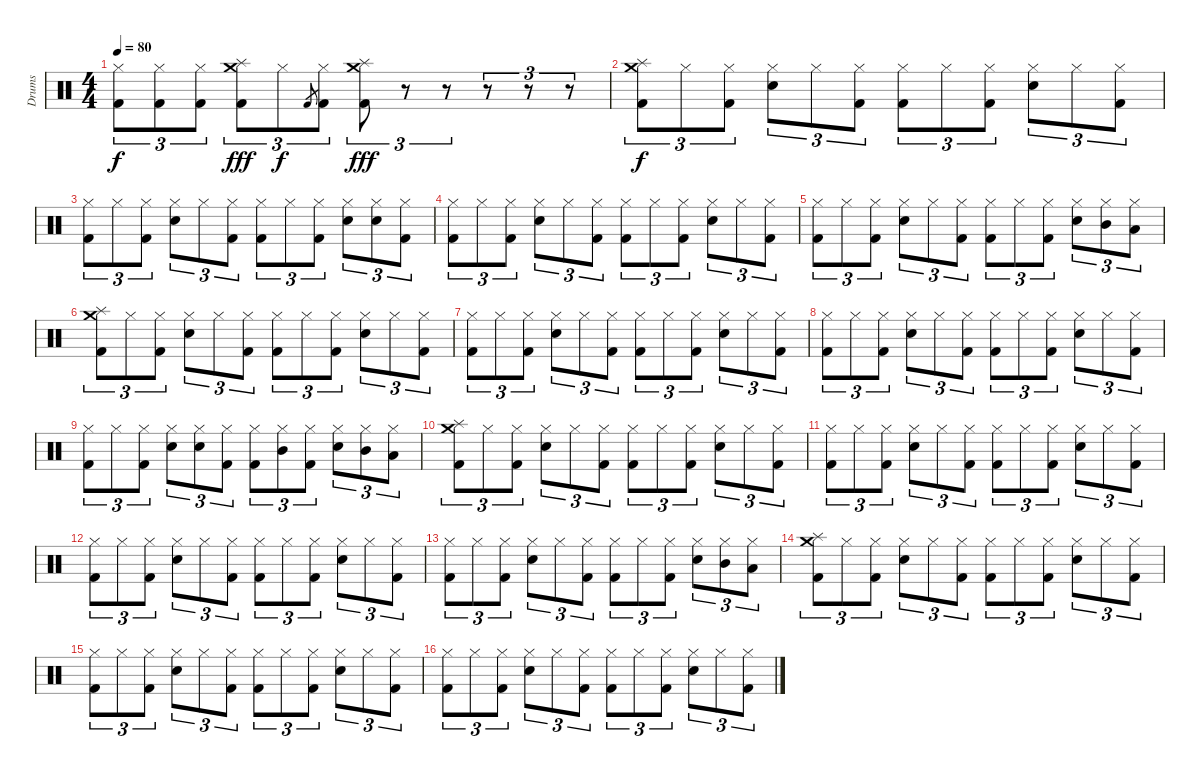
\track ("Drums" "Drums") {instrument percussion}
\staff {score}
\articulation defaults
\ts (4 4)
\tempo 80
\clef neutral
\ks c
("Hi-Hat (closed)" "Kick (hit) 2").8{tu (3 2) dy f} ("Hi-Hat (closed)" "Kick (hit) 2").8{tu (3 2)} ("Hi-Hat (closed)" "Kick (hit) 2").8{tu (3 2)} ("Crash medium (hit)" "Splash (hit)" "Kick (hit) 2").8{tu (3 2) dy fff} "Hi-Hat (closed)".8{tu (3 2) dy f} "Kick (hit) 2".8{gr} ("Hi-Hat (closed)" "Kick (hit) 2").8{tu (3 2)} ("Crash medium (hit)" "Splash (hit)" "Kick (hit) 2").8{tu (3 2) dy fff} r.8{tu (3 2)} r.8{tu (3 2)} r.8{tu (3 2)} r.8{tu (3 2)} r.8{tu (3 2)} |
("Crash medium (hit)" "Splash (hit)" "Kick (hit) 2").8{tu (3 2) dy f} "Hi-Hat (closed)".8{tu (3 2)} ("Hi-Hat (closed)" "Kick (hit) 2").8{tu (3 2)} ("Hi-Hat (closed)" "Snare (hit) 2").8{tu (3 2)} "Hi-Hat (closed)".8{tu (3 2)} ("Hi-Hat (closed)" "Kick (hit) 2").8{tu (3 2)} ("Hi-Hat (closed)" "Kick (hit) 2").8{tu (3 2)} "Hi-Hat (closed)".8{tu (3 2)} ("Hi-Hat (closed)" "Kick (hit) 2").8{tu (3 2)} ("Hi-Hat (closed)" "Snare (hit) 2").8{tu (3 2)} "Hi-Hat (closed)".8{tu (3 2)} ("Hi-Hat (closed)" "Kick (hit) 2").8{tu (3 2)} |
("Hi-Hat (closed)" "Kick (hit) 2").8{tu (3 2)} "Hi-Hat (closed)".8{tu (3 2)} ("Hi-Hat (closed)" "Kick (hit) 2").8{tu (3 2)} ("Hi-Hat (closed)" "Snare (hit) 2").8{tu (3 2)} "Hi-Hat (closed)".8{tu (3 2)} ("Hi-Hat (closed)" "Kick (hit) 2").8{tu (3 2)} ("Hi-Hat (closed)" "Kick (hit) 2").8{tu (3 2)} "Hi-Hat (closed)".8{tu (3 2)} ("Hi-Hat (closed)" "Kick (hit) 2").8{tu (3 2)} ("Hi-Hat (closed)" "Snare (hit) 2").8{tu (3 2)} ("Hi-Hat (closed)" "Snare (hit) 2").8{tu (3 2)} ("Hi-Hat (closed)" "Kick (hit) 2").8{tu (3 2)} |
("Hi-Hat (closed)" "Kick (hit) 2").8{tu (3 2)} "Hi-Hat (closed)".8{tu (3 2)} ("Hi-Hat (closed)" "Kick (hit) 2").8{tu (3 2)} ("Hi-Hat (closed)" "Snare (hit) 2").8{tu (3 2)} "Hi-Hat (closed)".8{tu (3 2)} ("Hi-Hat (closed)" "Kick (hit) 2").8{tu (3 2)} ("Hi-Hat (closed)" "Kick (hit) 2").8{tu (3 2)} "Hi-Hat (closed)".8{tu (3 2)} ("Hi-Hat (closed)" "Kick (hit) 2").8{tu (3 2)} ("Hi-Hat (closed)" "Snare (hit) 2").8{tu (3 2)} "Hi-Hat (closed)".8{tu (3 2)} ("Hi-Hat (closed)" "Kick (hit) 2").8{tu (3 2)} |
("Hi-Hat (closed)" "Kick (hit) 2").8{tu (3 2)} "Hi-Hat (closed)".8{tu (3 2)} ("Hi-Hat (closed)" "Kick (hit) 2").8{tu (3 2)} ("Hi-Hat (closed)" "Snare (hit) 2").8{tu (3 2)} "Hi-Hat (closed)".8{tu (3 2)} ("Hi-Hat (closed)" "Kick (hit) 2").8{tu (3 2)} ("Hi-Hat (closed)" "Kick (hit) 2").8{tu (3 2)} "Hi-Hat (closed)".8{tu (3 2)} ("Hi-Hat (closed)" "Kick (hit) 2").8{tu (3 2)} ("Hi-Hat (closed)" "Snare (hit) 2").8{tu (3 2)} ("Hi-Hat (closed)" "Mid Tom (hit)").8{tu (3 2)} ("Hi-Hat (closed)" "Low Tom (hit)").8{tu (3 2)} |
("Crash medium (hit)" "Splash (hit)" "Kick (hit) 2").8{tu (3 2)} "Hi-Hat (closed)".8{tu (3 2)} ("Hi-Hat (closed)" "Kick (hit) 2").8{tu (3 2)} ("Hi-Hat (closed)" "Snare (hit) 2").8{tu (3 2)} "Hi-Hat (closed)".8{tu (3 2)} ("Hi-Hat (closed)" "Kick (hit) 2").8{tu (3 2)} ("Hi-Hat (closed)" "Kick (hit) 2").8{tu (3 2)} "Hi-Hat (closed)".8{tu (3 2)} ("Hi-Hat (closed)" "Kick (hit) 2").8{tu (3 2)} ("Hi-Hat (closed)" "Snare (hit) 2").8{tu (3 2)} "Hi-Hat (closed)".8{tu (3 2)} ("Hi-Hat (closed)" "Kick (hit) 2").8{tu (3 2)} |
("Hi-Hat (closed)" "Kick (hit) 2").8{tu (3 2)} "Hi-Hat (closed)".8{tu (3 2)} ("Hi-Hat (closed)" "Kick (hit) 2").8{tu (3 2)} ("Hi-Hat (closed)" "Snare (hit) 2").8{tu (3 2)} "Hi-Hat (closed)".8{tu (3 2)} ("Hi-Hat (closed)" "Kick (hit) 2").8{tu (3 2)} ("Hi-Hat (closed)" "Kick (hit) 2").8{tu (3 2)} "Hi-Hat (closed)".8{tu (3 2)} ("Hi-Hat (closed)" "Kick (hit) 2").8{tu (3 2)} ("Hi-Hat (closed)" "Snare (hit) 2").8{tu (3 2)} "Hi-Hat (closed)".8{tu (3 2)} ("Hi-Hat (closed)" "Kick (hit) 2").8{tu (3 2)} |
("Hi-Hat (closed)" "Kick (hit) 2").8{tu (3 2)} "Hi-Hat (closed)".8{tu (3 2)} ("Hi-Hat (closed)" "Kick (hit) 2").8{tu (3 2)} ("Hi-Hat (closed)" "Snare (hit) 2").8{tu (3 2)} "Hi-Hat (closed)".8{tu (3 2)} ("Hi-Hat (closed)" "Kick (hit) 2").8{tu (3 2)} ("Hi-Hat (closed)" "Kick (hit) 2").8{tu (3 2)} "Hi-Hat (closed)".8{tu (3 2)} ("Hi-Hat (closed)" "Kick (hit) 2").8{tu (3 2)} ("Hi-Hat (closed)" "Snare (hit) 2").8{tu (3 2)} "Hi-Hat (closed)".8{tu (3 2)} ("Hi-Hat (closed)" "Kick (hit) 2").8{tu (3 2)} |
("Hi-Hat (closed)" "Kick (hit) 2").8{tu (3 2)} "Hi-Hat (closed)".8{tu (3 2)} ("Hi-Hat (closed)" "Kick (hit) 2").8{tu (3 2)} ("Hi-Hat (closed)" "Snare (hit) 2").8{tu (3 2)} ("Hi-Hat (closed)" "Snare (hit) 2").8{tu (3 2)} ("Hi-Hat (closed)" "Kick (hit) 2").8{tu (3 2)} ("Hi-Hat (closed)" "Kick (hit) 2").8{tu (3 2)} ("Hi-Hat (closed)" "Mid Tom (hit)").8{tu (3 2)} ("Hi-Hat (closed)" "Kick (hit) 2").8{tu (3 2)} ("Hi-Hat (closed)" "Snare (hit) 2").8{tu (3 2)} ("Hi-Hat (closed)" "Mid Tom (hit)").8{tu (3 2)} ("Hi-Hat (closed)" "Low Tom (hit)").8{tu (3 2)} |
("Crash medium (hit)" "Splash (hit)" "Kick (hit) 2").8{tu (3 2)} "Hi-Hat (closed)".8{tu (3 2)} ("Hi-Hat (closed)" "Kick (hit) 2").8{tu (3 2)} ("Hi-Hat (closed)" "Snare (hit) 2").8{tu (3 2)} "Hi-Hat (closed)".8{tu (3 2)} ("Hi-Hat (closed)" "Kick (hit) 2").8{tu (3 2)} ("Hi-Hat (closed)" "Kick (hit) 2").8{tu (3 2)} "Hi-Hat (closed)".8{tu (3 2)} ("Hi-Hat (closed)" "Kick (hit) 2").8{tu (3 2)} ("Hi-Hat (closed)" "Snare (hit) 2").8{tu (3 2)} "Hi-Hat (closed)".8{tu (3 2)} ("Hi-Hat (closed)" "Kick (hit) 2").8{tu (3 2)} |
("Hi-Hat (closed)" "Kick (hit) 2").8{tu (3 2)} "Hi-Hat (closed)".8{tu (3 2)} ("Hi-Hat (closed)" "Kick (hit) 2").8{tu (3 2)} ("Hi-Hat (closed)" "Snare (hit) 2").8{tu (3 2)} "Hi-Hat (closed)".8{tu (3 2)} ("Hi-Hat (closed)" "Kick (hit) 2").8{tu (3 2)} ("Hi-Hat (closed)" "Kick (hit) 2").8{tu (3 2)} "Hi-Hat (closed)".8{tu (3 2)} ("Hi-Hat (closed)" "Kick (hit) 2").8{tu (3 2)} ("Hi-Hat (closed)" "Snare (hit) 2").8{tu (3 2)} "Hi-Hat (closed)".8{tu (3 2)} ("Hi-Hat (closed)" "Kick (hit) 2").8{tu (3 2)} |
("Hi-Hat (closed)" "Kick (hit) 2").8{tu (3 2)} "Hi-Hat (closed)".8{tu (3 2)} ("Hi-Hat (closed)" "Kick (hit) 2").8{tu (3 2)} ("Hi-Hat (closed)" "Snare (hit) 2").8{tu (3 2)} "Hi-Hat (closed)".8{tu (3 2)} ("Hi-Hat (closed)" "Kick (hit) 2").8{tu (3 2)} ("Hi-Hat (closed)" "Kick (hit) 2").8{tu (3 2)} "Hi-Hat (closed)".8{tu (3 2)} ("Hi-Hat (closed)" "Kick (hit) 2").8{tu (3 2)} ("Hi-Hat (closed)" "Snare (hit) 2").8{tu (3 2)} "Hi-Hat (closed)".8{tu (3 2)} ("Hi-Hat (closed)" "Kick (hit) 2").8{tu (3 2)} |
("Hi-Hat (closed)" "Kick (hit) 2").8{tu (3 2)} "Hi-Hat (closed)".8{tu (3 2)} ("Hi-Hat (closed)" "Kick (hit) 2").8{tu (3 2)} ("Hi-Hat (closed)" "Snare (hit) 2").8{tu (3 2)} "Hi-Hat (closed)".8{tu (3 2)} ("Hi-Hat (closed)" "Kick (hit) 2").8{tu (3 2)} ("Hi-Hat (closed)" "Kick (hit) 2").8{tu (3 2)} "Hi-Hat (closed)".8{tu (3 2)} ("Hi-Hat (closed)" "Kick (hit) 2").8{tu (3 2)} ("Hi-Hat (closed)" "Snare (hit) 2").8{tu (3 2)} ("Hi-Hat (closed)" "Mid Tom (hit)").8{tu (3 2)} ("Hi-Hat (closed)" "Low Tom (hit)").8{tu (3 2)} |
("Crash medium (hit)" "Splash (hit)" "Kick (hit) 2").8{tu (3 2)} "Hi-Hat (closed)".8{tu (3 2)} ("Hi-Hat (closed)" "Kick (hit) 2").8{tu (3 2)} ("Hi-Hat (closed)" "Snare (hit) 2").8{tu (3 2)} "Hi-Hat (closed)".8{tu (3 2)} ("Hi-Hat (closed)" "Kick (hit) 2").8{tu (3 2)} ("Hi-Hat (closed)" "Kick (hit) 2").8{tu (3 2)} "Hi-Hat (closed)".8{tu (3 2)} ("Hi-Hat (closed)" "Kick (hit) 2").8{tu (3 2)} ("Hi-Hat (closed)" "Snare (hit) 2").8{tu (3 2)} "Hi-Hat (closed)".8{tu (3 2)} ("Hi-Hat (closed)" "Kick (hit) 2").8{tu (3 2)} |
("Hi-Hat (closed)" "Kick (hit) 2").8{tu (3 2)} "Hi-Hat (closed)".8{tu (3 2)} ("Hi-Hat (closed)" "Kick (hit) 2").8{tu (3 2)} ("Hi-Hat (closed)" "Snare (hit) 2").8{tu (3 2)} "Hi-Hat (closed)".8{tu (3 2)} ("Hi-Hat (closed)" "Kick (hit) 2").8{tu (3 2)} ("Hi-Hat (closed)" "Kick (hit) 2").8{tu (3 2)} "Hi-Hat (closed)".8{tu (3 2)} ("Hi-Hat (closed)" "Kick (hit) 2").8{tu (3 2)} ("Hi-Hat (closed)" "Snare (hit) 2").8{tu (3 2)} "Hi-Hat (closed)".8{tu (3 2)} ("Hi-Hat (closed)" "Kick (hit) 2").8{tu (3 2)} |
("Hi-Hat (closed)" "Kick (hit) 2").8{tu (3 2)} "Hi-Hat (closed)".8{tu (3 2)} ("Hi-Hat (closed)" "Kick (hit) 2").8{tu (3 2)} ("Hi-Hat (closed)" "Snare (hit) 2").8{tu (3 2)} "Hi-Hat (closed)".8{tu (3 2)} ("Hi-Hat (closed)" "Kick (hit) 2").8{tu (3 2)} ("Hi-Hat (closed)" "Kick (hit) 2").8{tu (3 2)} "Hi-Hat (closed)".8{tu (3 2)} ("Hi-Hat (closed)" "Kick (hit) 2").8{tu (3 2)} ("Hi-Hat (closed)" "Snare (hit) 2").8{tu (3 2)} "Hi-Hat (closed)".8{tu (3 2)} ("Hi-Hat (closed)" "Kick (hit) 2").8{tu (3 2)}
